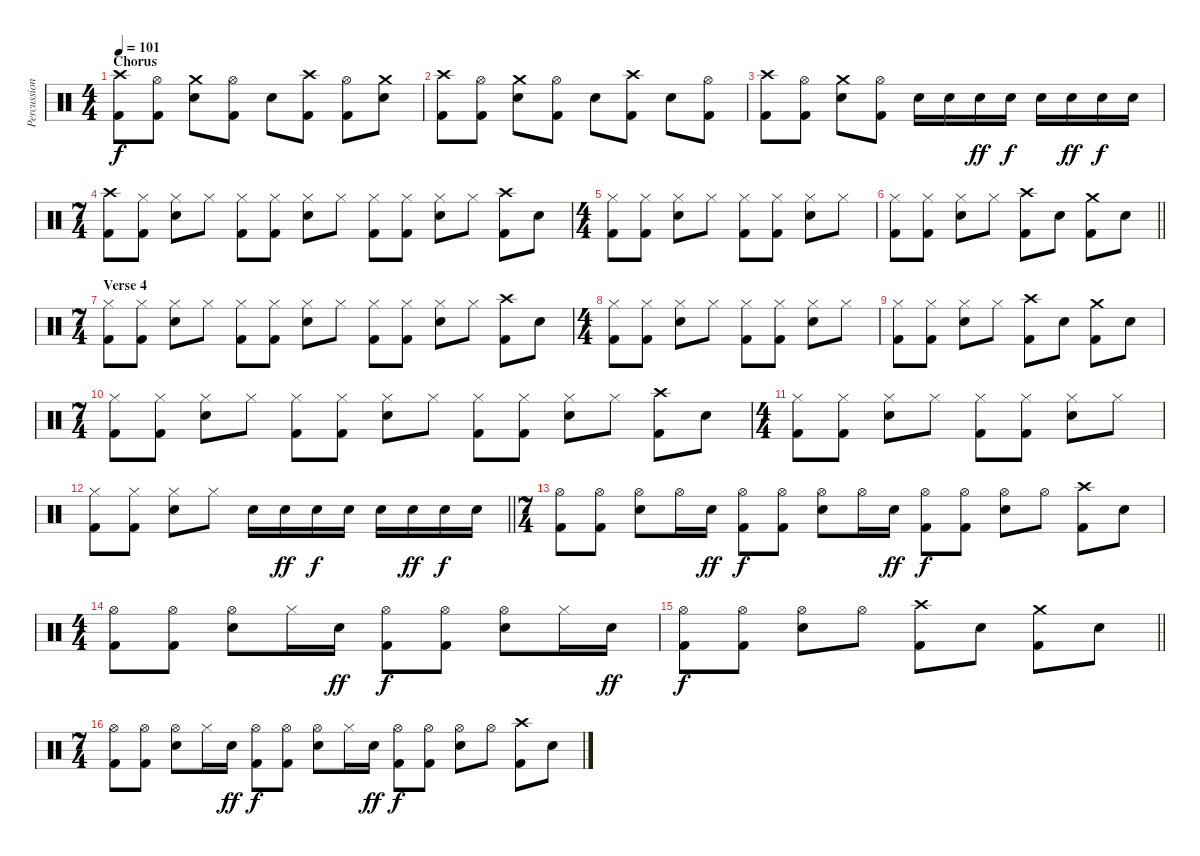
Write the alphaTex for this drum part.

\track ("Percussion" "Percussion") {instrument percussion}
\staff {score}
\articulation defaults
\ts (4 4)
\section ("" "Chorus")
\tempo 101
\clef neutral
\ks c
("Crash high (hit)" "Kick (hit) 2").8{dy f} ("Hi-Hat (open)" "Kick (hit) 2").8 ("Crash medium (hit)" "Electric Snare (hit)").8 ("Hi-Hat (open)" "Kick (hit) 2").8 "Electric Snare (hit)".8 ("Crash high (hit)" "Kick (hit) 2").8 ("Hi-Hat (open)" "Kick (hit) 2").8 ("Crash medium (hit)" "Electric Snare (hit)").8 |
("Crash high (hit)" "Kick (hit) 2").8 ("Hi-Hat (open)" "Kick (hit) 2").8 ("Crash medium (hit)" "Electric Snare (hit)").8 ("Hi-Hat (open)" "Kick (hit) 2").8 "Electric Snare (hit)".8 ("Crash high (hit)" "Kick (hit) 2").8 "Electric Snare (hit)".8 ("Hi-Hat (open)" "Kick (hit) 2").8 |
("Crash high (hit)" "Kick (hit) 2").8 ("Hi-Hat (open)" "Kick (hit) 2").8 ("Crash medium (hit)" "Electric Snare (hit)").8 ("Hi-Hat (open)" "Kick (hit) 2").8 "Electric Snare (hit)".16 "Electric Snare (hit)".16 "Electric Snare (hit)".16{dy ff} "Electric Snare (hit)".16{dy f} "Electric Snare (hit)".16 "Electric Snare (hit)".16{dy ff} "Electric Snare (hit)".16{dy f} "Electric Snare (hit)".16 |
\ts (7 4)
("Crash high (hit)" "Kick (hit) 2").8 ("Hi-Hat (closed)" "Kick (hit) 2").8 ("Hi-Hat (closed)" "Electric Snare (hit)").8 "Hi-Hat (closed)".8 ("Hi-Hat (closed)" "Kick (hit) 2").8 ("Hi-Hat (closed)" "Kick (hit) 2").8 ("Hi-Hat (closed)" "Electric Snare (hit)").8 "Hi-Hat (closed)".8 ("Hi-Hat (closed)" "Kick (hit) 2").8 ("Hi-Hat (closed)" "Kick (hit) 2").8 ("Hi-Hat (closed)" "Electric Snare (hit)").8 "Hi-Hat (closed)".8 ("Crash high (hit)" "Kick (hit) 2").8 "Electric Snare (hit)".8 |
\ts (4 4)
("Hi-Hat (closed)" "Kick (hit) 2").8 ("Hi-Hat (closed)" "Kick (hit) 2").8 ("Hi-Hat (closed)" "Electric Snare (hit)").8 "Hi-Hat (closed)".8 ("Hi-Hat (closed)" "Kick (hit) 2").8 ("Hi-Hat (closed)" "Kick (hit) 2").8 ("Hi-Hat (closed)" "Electric Snare (hit)").8 "Hi-Hat (closed)".8 |
\barLineRight lightlight
("Hi-Hat (closed)" "Kick (hit) 2").8 ("Hi-Hat (closed)" "Kick (hit) 2").8 ("Hi-Hat (closed)" "Electric Snare (hit)").8 "Hi-Hat (closed)".8 ("Crash high (hit)" "Kick (hit) 2").8 "Electric Snare (hit)".8 ("Crash medium (hit)" "Kick (hit) 2").8 "Electric Snare (hit)".8 |
\ts (7 4)
\section ("" "Verse 4")
("Hi-Hat (closed)" "Kick (hit) 2").8 ("Hi-Hat (closed)" "Kick (hit) 2").8 ("Hi-Hat (closed)" "Electric Snare (hit)").8 "Hi-Hat (closed)".8 ("Hi-Hat (closed)" "Kick (hit) 2").8 ("Hi-Hat (closed)" "Kick (hit) 2").8 ("Hi-Hat (closed)" "Electric Snare (hit)").8 "Hi-Hat (closed)".8 ("Hi-Hat (closed)" "Kick (hit) 2").8 ("Hi-Hat (closed)" "Kick (hit) 2").8 ("Hi-Hat (closed)" "Electric Snare (hit)").8 "Hi-Hat (closed)".8 ("Crash high (hit)" "Kick (hit) 2").8 "Electric Snare (hit)".8 |
\ts (4 4)
("Hi-Hat (closed)" "Kick (hit) 2").8 ("Hi-Hat (closed)" "Kick (hit) 2").8 ("Hi-Hat (closed)" "Electric Snare (hit)").8 "Hi-Hat (closed)".8 ("Hi-Hat (closed)" "Kick (hit) 2").8 ("Hi-Hat (closed)" "Kick (hit) 2").8 ("Hi-Hat (closed)" "Electric Snare (hit)").8 "Hi-Hat (closed)".8 |
("Hi-Hat (closed)" "Kick (hit) 2").8 ("Hi-Hat (closed)" "Kick (hit) 2").8 ("Hi-Hat (closed)" "Electric Snare (hit)").8 "Hi-Hat (closed)".8 ("Crash high (hit)" "Kick (hit) 2").8 "Electric Snare (hit)".8 ("Crash medium (hit)" "Kick (hit) 2").8 "Electric Snare (hit)".8 |
\ts (7 4)
("Hi-Hat (closed)" "Kick (hit) 2").8 ("Hi-Hat (closed)" "Kick (hit) 2").8 ("Hi-Hat (closed)" "Electric Snare (hit)").8 "Hi-Hat (closed)".8 ("Hi-Hat (closed)" "Kick (hit) 2").8 ("Hi-Hat (closed)" "Kick (hit) 2").8 ("Hi-Hat (closed)" "Electric Snare (hit)").8 "Hi-Hat (closed)".8 ("Hi-Hat (closed)" "Kick (hit) 2").8 ("Hi-Hat (closed)" "Kick (hit) 2").8 ("Hi-Hat (closed)" "Electric Snare (hit)").8 "Hi-Hat (closed)".8 ("Crash high (hit)" "Kick (hit) 2").8 "Electric Snare (hit)".8 |
\ts (4 4)
("Hi-Hat (closed)" "Kick (hit) 2").8 ("Hi-Hat (closed)" "Kick (hit) 2").8 ("Hi-Hat (closed)" "Electric Snare (hit)").8 "Hi-Hat (closed)".8 ("Hi-Hat (closed)" "Kick (hit) 2").8 ("Hi-Hat (closed)" "Kick (hit) 2").8 ("Hi-Hat (closed)" "Electric Snare (hit)").8 "Hi-Hat (closed)".8 |
\barLineRight lightlight
("Hi-Hat (closed)" "Kick (hit) 2").8 ("Hi-Hat (closed)" "Kick (hit) 2").8 ("Hi-Hat (closed)" "Electric Snare (hit)").8 "Hi-Hat (closed)".8 "Electric Snare (hit)".16 "Electric Snare (hit)".16{dy ff} "Electric Snare (hit)".16{dy f} "Electric Snare (hit)".16 "Electric Snare (hit)".16 "Electric Snare (hit)".16{dy ff} "Electric Snare (hit)".16{dy f} "Electric Snare (hit)".16 |
\ts (7 4)
("Hi-Hat (open)" "Kick (hit) 2").8 ("Hi-Hat (open)" "Kick (hit) 2").8 ("Hi-Hat (open)" "Electric Snare (hit)").8 "Hi-Hat (open)".16 "Electric Snare (hit)".16{dy ff} ("Hi-Hat (open)" "Kick (hit) 2").8{dy f} ("Hi-Hat (open)" "Kick (hit) 2").8 ("Hi-Hat (open)" "Electric Snare (hit)").8 "Hi-Hat (open)".16 "Electric Snare (hit)".16{dy ff} ("Hi-Hat (open)" "Kick (hit) 2").8{dy f} ("Hi-Hat (open)" "Kick (hit) 2").8 ("Hi-Hat (open)" "Electric Snare (hit)").8 "Hi-Hat (open)".8 ("Crash high (hit)" "Kick (hit) 2").8 "Electric Snare (hit)".8 |
\ts (4 4)
("Hi-Hat (open)" "Kick (hit) 2").8 ("Hi-Hat (open)" "Kick (hit) 2").8 ("Hi-Hat (open)" "Electric Snare (hit)").8 "Hi-Hat (closed)".16 "Electric Snare (hit)".16{dy ff} ("Hi-Hat (open)" "Kick (hit) 2").8{dy f} ("Hi-Hat (open)" "Kick (hit) 2").8 ("Hi-Hat (open)" "Electric Snare (hit)").8 "Hi-Hat (closed)".16 "Electric Snare (hit)".16{dy ff} |
\barLineRight lightlight
("Hi-Hat (open)" "Kick (hit) 2").8{dy f} ("Hi-Hat (open)" "Kick (hit) 2").8 ("Hi-Hat (open)" "Electric Snare (hit)").8 "Hi-Hat (open)".8 ("Crash high (hit)" "Kick (hit) 2").8 "Electric Snare (hit)".8 ("Crash medium (hit)" "Kick (hit) 2").8 "Electric Snare (hit)".8 |
\ts (7 4)
("Hi-Hat (open)" "Kick (hit) 2").8 ("Hi-Hat (open)" "Kick (hit) 2").8 ("Hi-Hat (open)" "Electric Snare (hit)").8 "Hi-Hat (closed)".16 "Electric Snare (hit)".16{dy ff} ("Hi-Hat (open)" "Kick (hit) 2").8{dy f} ("Hi-Hat (open)" "Kick (hit) 2").8 ("Hi-Hat (open)" "Electric Snare (hit)").8 "Hi-Hat (closed)".16 "Electric Snare (hit)".16{dy ff} ("Hi-Hat (open)" "Kick (hit) 2").8{dy f} ("Hi-Hat (open)" "Kick (hit) 2").8 ("Hi-Hat (open)" "Electric Snare (hit)").8 "Hi-Hat (open)".8 ("Crash high (hit)" "Kick (hit) 2").8 "Electric Snare (hit)".8
